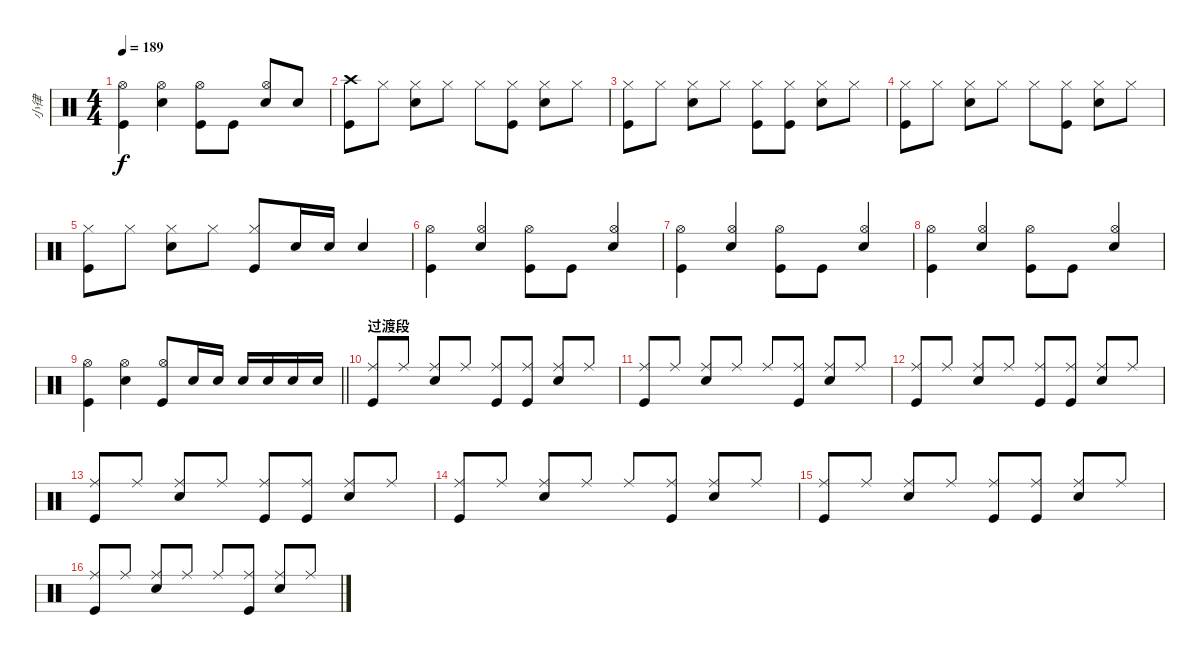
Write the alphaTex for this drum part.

\track ("小律" "小律") {instrument percussion}
\staff {score}
\articulation defaults
\ts (4 4)
\tempo 189
\clef neutral
\ks c
("Hi-Hat (open)" "Kick (hit)").4{dy f} ("Hi-Hat (open)" "Snare (hit) 2").4 ("Hi-Hat (open)" "Kick (hit)").8 "Kick (hit)".8 ("Hi-Hat (open)" "Snare (hit) 2").8{beam Up} "Snare (hit) 2".8{beam Up} |
("Crash high (hit)" "Kick (hit)").8 "Hi-Hat (closed)".8 ("Hi-Hat (closed)" "Snare (hit) 2").8 "Hi-Hat (closed)".8 "Hi-Hat (closed)".8 ("Hi-Hat (closed)" "Kick (hit)").8 ("Hi-Hat (closed)" "Snare (hit) 2").8 "Hi-Hat (closed)".8 |
("Hi-Hat (closed)" "Kick (hit)").8 "Hi-Hat (closed)".8 ("Hi-Hat (closed)" "Snare (hit) 2").8 "Hi-Hat (closed)".8 ("Hi-Hat (closed)" "Kick (hit)").8 ("Hi-Hat (closed)" "Kick (hit)").8 ("Snare (hit) 2" "Hi-Hat (closed)").8 "Hi-Hat (closed)".8 |
("Hi-Hat (closed)" "Kick (hit)").8 "Hi-Hat (closed)".8 ("Hi-Hat (closed)" "Snare (hit) 2").8 "Hi-Hat (closed)".8 "Hi-Hat (closed)".8 ("Hi-Hat (closed)" "Kick (hit)").8 ("Hi-Hat (closed)" "Snare (hit) 2").8 "Hi-Hat (closed)".8 |
("Hi-Hat (closed)" "Kick (hit)").8 "Hi-Hat (closed)".8 ("Hi-Hat (closed)" "Snare (hit) 2").8 "Hi-Hat (closed)".8 ("Hi-Hat (closed)" "Kick (hit)").8{beam Up} "Snare (hit) 2".16{beam Up} "Snare (hit) 2".16{beam Up} "Snare (hit) 2".4{beam Up} |
("Kick (hit)" "Hi-Hat (open)").4 ("Snare (hit) 2" "Hi-Hat (open)").4{beam Up} ("Hi-Hat (open)" "Kick (hit)").8 "Kick (hit)".8 ("Snare (hit) 2" "Hi-Hat (open)").4{beam Up} |
("Hi-Hat (open)" "Kick (hit)").4 ("Hi-Hat (open)" "Snare (hit) 2").4{beam Up} ("Hi-Hat (open)" "Kick (hit)").8 "Kick (hit)".8 ("Hi-Hat (open)" "Snare (hit) 2").4{beam Up} |
("Hi-Hat (open)" "Kick (hit)").4 ("Hi-Hat (open)" "Snare (hit) 2").4{beam Up} ("Hi-Hat (open)" "Kick (hit)").8 "Kick (hit)".8 ("Hi-Hat (open)" "Snare (hit) 2").4{beam Up} |
\barLineRight lightlight
("Hi-Hat (open)" "Kick (hit)").4 ("Hi-Hat (open)" "Snare (hit) 2").4 ("Hi-Hat (open)" "Kick (hit)").8{beam Up} "Snare (hit) 2".16{beam Up} "Snare (hit) 2".16{beam Up} "Snare (hit) 2".16{beam Up} "Snare (hit) 2".16{beam Up} "Snare (hit) 2".16{beam Up} "Snare (hit) 2".16{beam Up} |
\section ("" "过渡段")
("Kick (hit)" "Ride (middle)").8{beam Up} "Ride (middle)".8{beam Up} ("Snare (hit) 2" "Ride (middle)").8{beam Up} "Ride (middle)".8{beam Up} ("Ride (middle)" "Kick (hit)").8{beam Up} ("Ride (middle)" "Kick (hit)").8{beam Up} ("Ride (middle)" "Snare (hit) 2").8{beam Up} "Ride (middle)".8{beam Up} |
("Kick (hit)" "Ride (middle)").8{beam Up} "Ride (middle)".8{beam Up} ("Snare (hit) 2" "Ride (middle)").8{beam Up} "Ride (middle)".8{beam Up} "Ride (middle)".8{beam Up} ("Ride (middle)" "Kick (hit)").8{beam Up} ("Ride (middle)" "Snare (hit) 2").8{beam Up} "Ride (middle)".8{beam Up} |
("Ride (middle)" "Kick (hit)").8{beam Up} "Ride (middle)".8{beam Up} ("Ride (middle)" "Snare (hit) 2").8{beam Up} "Ride (middle)".8{beam Up} ("Ride (middle)" "Kick (hit)").8{beam Up} ("Ride (middle)" "Kick (hit)").8{beam Up} ("Ride (middle)" "Snare (hit) 2").8{beam Up} "Ride (middle)".8{beam Up} |
("Ride (middle)" "Kick (hit)").8{beam Up} "Ride (middle)".8{beam Up} ("Ride (middle)" "Snare (hit) 2").8{beam Up} "Ride (middle)".8{beam Up} ("Ride (middle)" "Kick (hit)").8{beam Up} ("Ride (middle)" "Kick (hit)").8{beam Up} ("Ride (middle)" "Snare (hit) 2").8{beam Up} "Ride (middle)".8{beam Up} |
("Ride (middle)" "Kick (hit)").8{beam Up} "Ride (middle)".8{beam Up} ("Ride (middle)" "Snare (hit) 2").8{beam Up} "Ride (middle)".8{beam Up} "Ride (middle)".8{beam Up} ("Ride (middle)" "Kick (hit)").8{beam Up} ("Ride (middle)" "Snare (hit) 2").8{beam Up} "Ride (middle)".8{beam Up} |
("Ride (middle)" "Kick (hit)").8{beam Up} "Ride (middle)".8{beam Up} ("Ride (middle)" "Snare (hit) 2").8{beam Up} "Ride (middle)".8{beam Up} ("Ride (middle)" "Kick (hit)").8{beam Up} ("Ride (middle)" "Kick (hit)").8{beam Up} ("Ride (middle)" "Snare (hit) 2").8{beam Up} "Ride (middle)".8{beam Up} |
("Ride (middle)" "Kick (hit)").8{beam Up} "Ride (middle)".8{beam Up} ("Ride (middle)" "Snare (hit) 2").8{beam Up} "Ride (middle)".8{beam Up} "Ride (middle)".8{beam Up} ("Ride (middle)" "Kick (hit)").8{beam Up} ("Ride (middle)" "Snare (hit) 2").8{beam Up} "Ride (middle)".8{beam Up}
